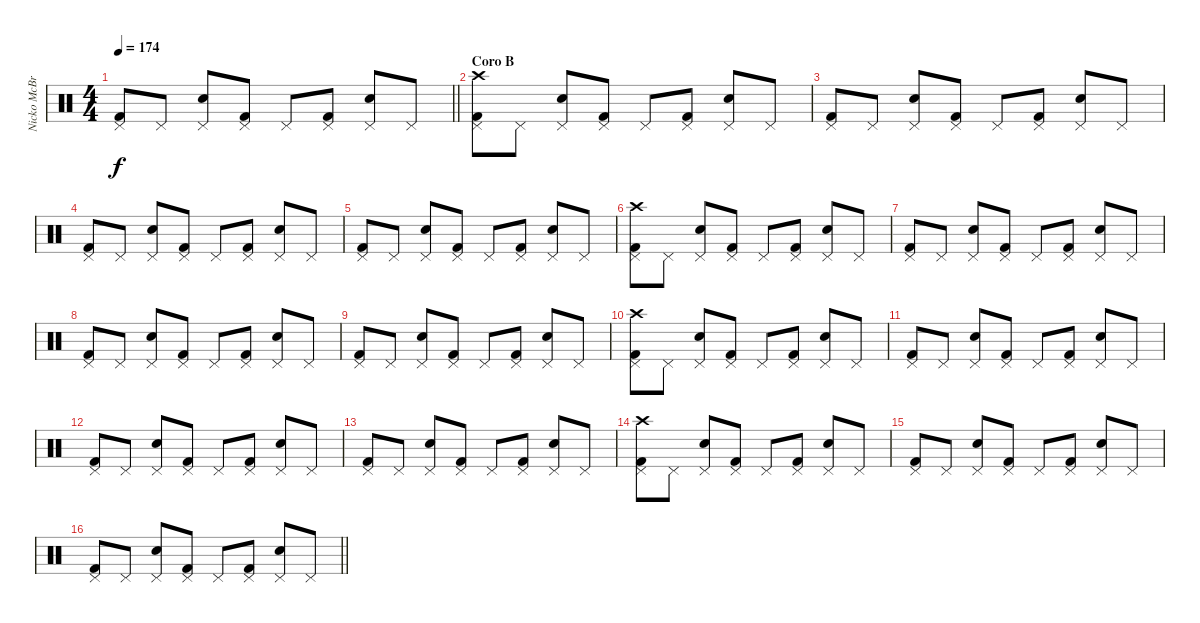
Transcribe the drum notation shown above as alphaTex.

\track ("Nicko McBrain" "Nicko McBr") {instrument percussion}
\staff {score}
\articulation defaults
\ts (4 4)
\tempo 174
\clef neutral
\barLineRight lightlight
\ks c
("Kick (hit) 2" "Pedal Hi-Hat (hit)").8{dy f} "Pedal Hi-Hat (hit)".8 ("Snare (hit) 2" "Pedal Hi-Hat (hit)").8 ("Kick (hit) 2" "Pedal Hi-Hat (hit)").8 "Pedal Hi-Hat (hit)".8 ("Kick (hit) 2" "Pedal Hi-Hat (hit)").8 ("Snare (hit) 2" "Pedal Hi-Hat (hit)").8 "Pedal Hi-Hat (hit)".8 |
\section ("" "Coro B")
("Kick (hit) 2" "Pedal Hi-Hat (hit)" "Crash high (hit)").8 "Pedal Hi-Hat (hit)".8 ("Snare (hit) 2" "Pedal Hi-Hat (hit)").8 ("Kick (hit) 2" "Pedal Hi-Hat (hit)").8 "Pedal Hi-Hat (hit)".8 ("Kick (hit) 2" "Pedal Hi-Hat (hit)").8 ("Snare (hit) 2" "Pedal Hi-Hat (hit)").8 "Pedal Hi-Hat (hit)".8 |
("Kick (hit) 2" "Pedal Hi-Hat (hit)").8 "Pedal Hi-Hat (hit)".8 ("Snare (hit) 2" "Pedal Hi-Hat (hit)").8 ("Kick (hit) 2" "Pedal Hi-Hat (hit)").8 "Pedal Hi-Hat (hit)".8 ("Kick (hit) 2" "Pedal Hi-Hat (hit)").8 ("Snare (hit) 2" "Pedal Hi-Hat (hit)").8 "Pedal Hi-Hat (hit)".8 |
("Kick (hit) 2" "Pedal Hi-Hat (hit)").8 "Pedal Hi-Hat (hit)".8 ("Snare (hit) 2" "Pedal Hi-Hat (hit)").8 ("Kick (hit) 2" "Pedal Hi-Hat (hit)").8 "Pedal Hi-Hat (hit)".8 ("Kick (hit) 2" "Pedal Hi-Hat (hit)").8 ("Snare (hit) 2" "Pedal Hi-Hat (hit)").8 "Pedal Hi-Hat (hit)".8 |
("Kick (hit) 2" "Pedal Hi-Hat (hit)").8 "Pedal Hi-Hat (hit)".8 ("Snare (hit) 2" "Pedal Hi-Hat (hit)").8 ("Kick (hit) 2" "Pedal Hi-Hat (hit)").8 "Pedal Hi-Hat (hit)".8 ("Kick (hit) 2" "Pedal Hi-Hat (hit)").8 ("Snare (hit) 2" "Pedal Hi-Hat (hit)").8 "Pedal Hi-Hat (hit)".8 |
("Kick (hit) 2" "Pedal Hi-Hat (hit)" "Crash high (hit)").8 "Pedal Hi-Hat (hit)".8 ("Snare (hit) 2" "Pedal Hi-Hat (hit)").8 ("Kick (hit) 2" "Pedal Hi-Hat (hit)").8 "Pedal Hi-Hat (hit)".8 ("Kick (hit) 2" "Pedal Hi-Hat (hit)").8 ("Snare (hit) 2" "Pedal Hi-Hat (hit)").8 "Pedal Hi-Hat (hit)".8 |
("Kick (hit) 2" "Pedal Hi-Hat (hit)").8 "Pedal Hi-Hat (hit)".8 ("Snare (hit) 2" "Pedal Hi-Hat (hit)").8 ("Kick (hit) 2" "Pedal Hi-Hat (hit)").8 "Pedal Hi-Hat (hit)".8 ("Kick (hit) 2" "Pedal Hi-Hat (hit)").8 ("Snare (hit) 2" "Pedal Hi-Hat (hit)").8 "Pedal Hi-Hat (hit)".8 |
("Kick (hit) 2" "Pedal Hi-Hat (hit)").8 "Pedal Hi-Hat (hit)".8 ("Snare (hit) 2" "Pedal Hi-Hat (hit)").8 ("Kick (hit) 2" "Pedal Hi-Hat (hit)").8 "Pedal Hi-Hat (hit)".8 ("Kick (hit) 2" "Pedal Hi-Hat (hit)").8 ("Snare (hit) 2" "Pedal Hi-Hat (hit)").8 "Pedal Hi-Hat (hit)".8 |
("Kick (hit) 2" "Pedal Hi-Hat (hit)").8 "Pedal Hi-Hat (hit)".8 ("Snare (hit) 2" "Pedal Hi-Hat (hit)").8 ("Kick (hit) 2" "Pedal Hi-Hat (hit)").8 "Pedal Hi-Hat (hit)".8 ("Kick (hit) 2" "Pedal Hi-Hat (hit)").8 ("Snare (hit) 2" "Pedal Hi-Hat (hit)").8 "Pedal Hi-Hat (hit)".8 |
("Kick (hit) 2" "Pedal Hi-Hat (hit)" "Crash high (hit)").8 "Pedal Hi-Hat (hit)".8 ("Snare (hit) 2" "Pedal Hi-Hat (hit)").8 ("Kick (hit) 2" "Pedal Hi-Hat (hit)").8 "Pedal Hi-Hat (hit)".8 ("Kick (hit) 2" "Pedal Hi-Hat (hit)").8 ("Snare (hit) 2" "Pedal Hi-Hat (hit)").8 "Pedal Hi-Hat (hit)".8 |
("Kick (hit) 2" "Pedal Hi-Hat (hit)").8 "Pedal Hi-Hat (hit)".8 ("Snare (hit) 2" "Pedal Hi-Hat (hit)").8 ("Kick (hit) 2" "Pedal Hi-Hat (hit)").8 "Pedal Hi-Hat (hit)".8 ("Kick (hit) 2" "Pedal Hi-Hat (hit)").8 ("Snare (hit) 2" "Pedal Hi-Hat (hit)").8 "Pedal Hi-Hat (hit)".8 |
("Kick (hit) 2" "Pedal Hi-Hat (hit)").8 "Pedal Hi-Hat (hit)".8 ("Snare (hit) 2" "Pedal Hi-Hat (hit)").8 ("Kick (hit) 2" "Pedal Hi-Hat (hit)").8 "Pedal Hi-Hat (hit)".8 ("Kick (hit) 2" "Pedal Hi-Hat (hit)").8 ("Snare (hit) 2" "Pedal Hi-Hat (hit)").8 "Pedal Hi-Hat (hit)".8 |
("Kick (hit) 2" "Pedal Hi-Hat (hit)").8 "Pedal Hi-Hat (hit)".8 ("Snare (hit) 2" "Pedal Hi-Hat (hit)").8 ("Kick (hit) 2" "Pedal Hi-Hat (hit)").8 "Pedal Hi-Hat (hit)".8 ("Kick (hit) 2" "Pedal Hi-Hat (hit)").8 ("Snare (hit) 2" "Pedal Hi-Hat (hit)").8 "Pedal Hi-Hat (hit)".8 |
("Kick (hit) 2" "Pedal Hi-Hat (hit)" "Crash high (hit)").8 "Pedal Hi-Hat (hit)".8 ("Snare (hit) 2" "Pedal Hi-Hat (hit)").8 ("Kick (hit) 2" "Pedal Hi-Hat (hit)").8 "Pedal Hi-Hat (hit)".8 ("Kick (hit) 2" "Pedal Hi-Hat (hit)").8 ("Snare (hit) 2" "Pedal Hi-Hat (hit)").8 "Pedal Hi-Hat (hit)".8 |
("Kick (hit) 2" "Pedal Hi-Hat (hit)").8 "Pedal Hi-Hat (hit)".8 ("Snare (hit) 2" "Pedal Hi-Hat (hit)").8 ("Kick (hit) 2" "Pedal Hi-Hat (hit)").8 "Pedal Hi-Hat (hit)".8 ("Kick (hit) 2" "Pedal Hi-Hat (hit)").8 ("Snare (hit) 2" "Pedal Hi-Hat (hit)").8 "Pedal Hi-Hat (hit)".8 |
\barLineRight lightlight
("Kick (hit) 2" "Pedal Hi-Hat (hit)").8 "Pedal Hi-Hat (hit)".8 ("Snare (hit) 2" "Pedal Hi-Hat (hit)").8 ("Kick (hit) 2" "Pedal Hi-Hat (hit)").8 "Pedal Hi-Hat (hit)".8 ("Kick (hit) 2" "Pedal Hi-Hat (hit)").8 ("Snare (hit) 2" "Pedal Hi-Hat (hit)").8 "Pedal Hi-Hat (hit)".8
